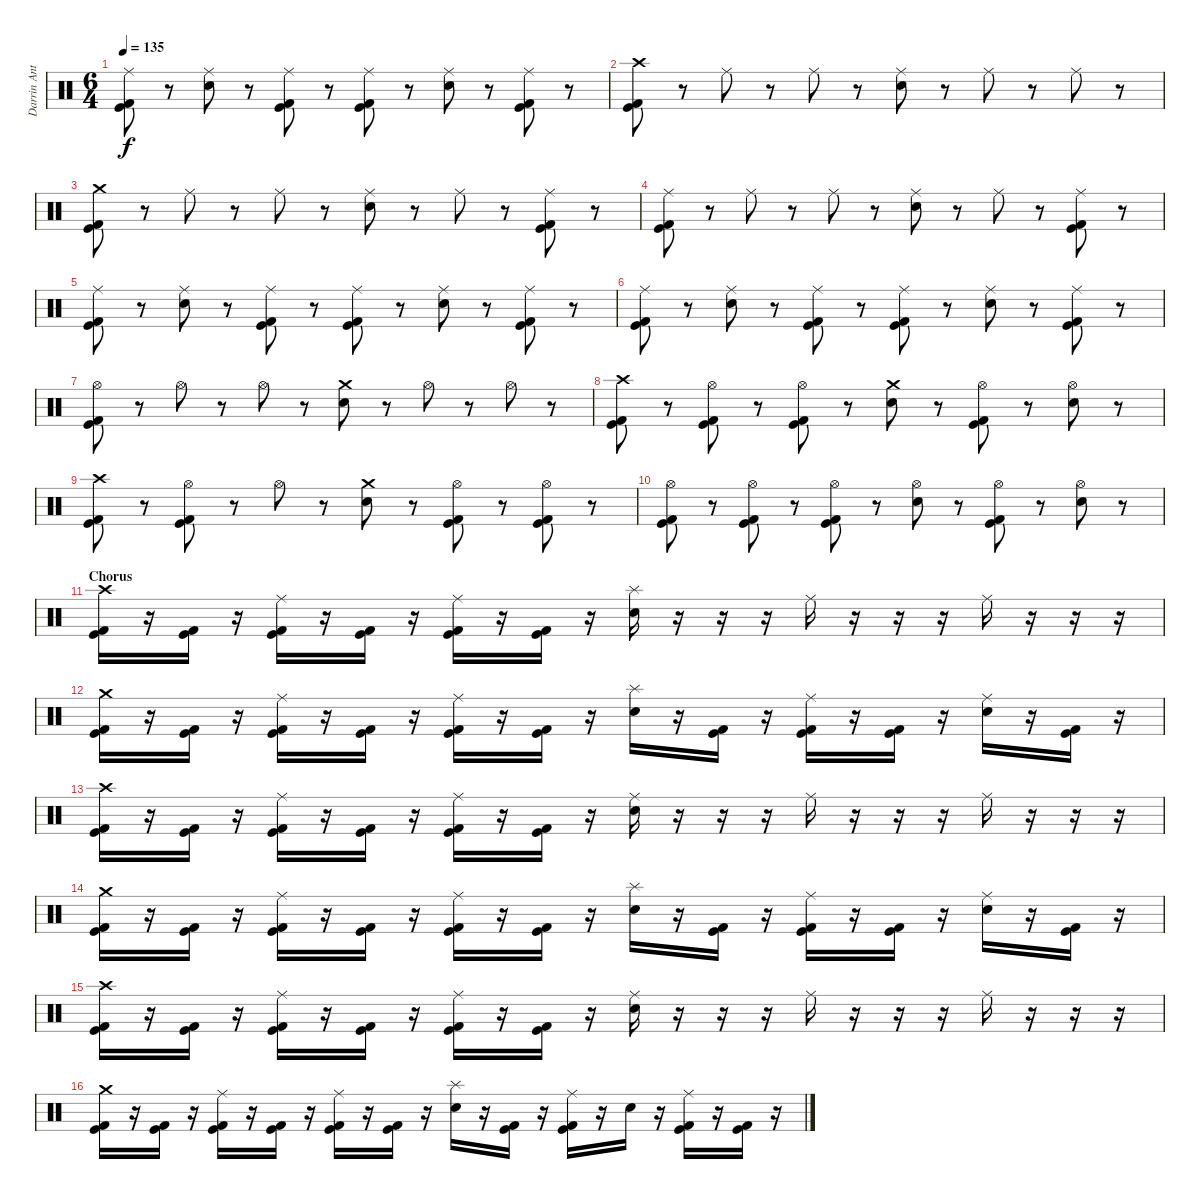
\track ("Darrin Anthony" "Darrin Ant") {instrument percussion}
\staff {score}
\articulation defaults
\ts (6 4)
\tempo 135
\clef neutral
\ks c
("Ride (middle)" "Kick (hit)" "Kick (hit) 2").8{dy f} r.8 ("Ride (middle)" "Electric Snare (hit)").8 r.8 ("Ride (middle)" "Kick (hit)" "Kick (hit) 2").8 r.8 ("Ride (middle)" "Kick (hit)" "Kick (hit) 2").8 r.8 ("Ride (middle)" "Electric Snare (hit)").8 r.8 ("Ride (middle)" "Kick (hit)" "Kick (hit) 2").8 r.8 |
("Crash high (hit)" "Kick (hit)" "Kick (hit) 2").8 r.8 "Ride (middle)".8 r.8 "Ride (middle)".8 r.8 ("Ride (middle)" "Electric Snare (hit)").8 r.8 "Ride (middle)".8 r.8 "Ride (middle)".8 r.8 |
("Crash medium (hit)" "Kick (hit)" "Kick (hit) 2").8 r.8 "Ride (middle)".8 r.8 "Ride (middle)".8 r.8 ("Ride (middle)" "Electric Snare (hit)").8 r.8 "Ride (middle)".8 r.8 ("Ride (middle)" "Kick (hit)" "Kick (hit) 2").8 r.8 |
("Ride (middle)" "Kick (hit)" "Kick (hit) 2").8 r.8 "Ride (middle)".8 r.8 "Ride (middle)".8 r.8 ("Ride (middle)" "Electric Snare (hit)").8 r.8 "Ride (middle)".8 r.8 ("Ride (middle)" "Kick (hit)" "Kick (hit) 2").8 r.8 |
("Ride (middle)" "Kick (hit)" "Kick (hit) 2").8 r.8 ("Ride (middle)" "Electric Snare (hit)").8 r.8 ("Ride (middle)" "Kick (hit)" "Kick (hit) 2").8 r.8 ("Ride (middle)" "Kick (hit)" "Kick (hit) 2").8 r.8 ("Ride (middle)" "Electric Snare (hit)").8 r.8 ("Ride (middle)" "Kick (hit)" "Kick (hit) 2").8 r.8 |
("Ride (middle)" "Kick (hit)" "Kick (hit) 2").8 r.8 ("Ride (middle)" "Electric Snare (hit)").8 r.8 ("Ride (middle)" "Kick (hit)" "Kick (hit) 2").8 r.8 ("Ride (middle)" "Kick (hit)" "Kick (hit) 2").8 r.8 ("Ride (middle)" "Electric Snare (hit)").8 r.8 ("Ride (middle)" "Kick (hit)" "Kick (hit) 2").8 r.8 |
("Hi-Hat (open)" "Kick (hit)" "Kick (hit) 2").8 r.8 "Hi-Hat (open)".8 r.8 "Hi-Hat (open)".8 r.8 ("Crash medium (hit)" "Electric Snare (hit)").8 r.8 "Hi-Hat (open)".8 r.8 "Hi-Hat (open)".8 r.8 |
("Crash high (hit)" "Kick (hit)" "Kick (hit) 2").8 r.8 ("Hi-Hat (open)" "Kick (hit)" "Kick (hit) 2").8 r.8 ("Hi-Hat (open)" "Kick (hit)" "Kick (hit) 2").8 r.8 ("Crash medium (hit)" "Electric Snare (hit)").8 r.8 ("Hi-Hat (open)" "Kick (hit)" "Kick (hit) 2").8 r.8 ("Hi-Hat (open)" "Electric Snare (hit)").8 r.8 |
("Crash high (hit)" "Kick (hit)" "Kick (hit) 2").8 r.8 ("Hi-Hat (open)" "Kick (hit)" "Kick (hit) 2").8 r.8 "Hi-Hat (open)".8 r.8 ("Crash medium (hit)" "Electric Snare (hit)").8 r.8 ("Hi-Hat (open)" "Kick (hit)" "Kick (hit) 2").8 r.8 ("Hi-Hat (open)" "Kick (hit)" "Kick (hit) 2").8 r.8 |
("Hi-Hat (open)" "Kick (hit)" "Kick (hit) 2").8 r.8 ("Hi-Hat (open)" "Kick (hit)" "Kick (hit) 2").8 r.8 ("Hi-Hat (open)" "Kick (hit)" "Kick (hit) 2").8 r.8 ("Hi-Hat (open)" "Electric Snare (hit)").8 r.8 ("Hi-Hat (open)" "Kick (hit)" "Kick (hit) 2").8 r.8 ("Hi-Hat (open)" "Electric Snare (hit)").8 r.8 |
\section ("" "Chorus")
("Crash high (hit)" "Kick (hit)" "Kick (hit) 2").16 r.16 ("Kick (hit)" "Kick (hit) 2").16 r.16 ("Ride (middle)" "Kick (hit)" "Kick (hit) 2").16 r.16 ("Kick (hit)" "Kick (hit) 2").16 r.16 ("Ride (middle)" "Kick (hit)" "Kick (hit) 2").16 r.16 ("Kick (hit)" "Kick (hit) 2").16 r.16 ("Splash (hit)" "Electric Snare (hit)").16 r.16 r.16 r.16 "Ride (middle)".16 r.16 r.16 r.16 "Ride (middle)".16 r.16 r.16 r.16 |
("Crash medium (hit)" "Kick (hit)" "Kick (hit) 2").16 r.16 ("Kick (hit)" "Kick (hit) 2").16 r.16 ("Ride (middle)" "Kick (hit)" "Kick (hit) 2").16 r.16 ("Kick (hit)" "Kick (hit) 2").16 r.16 ("Ride (middle)" "Kick (hit)" "Kick (hit) 2").16 r.16 ("Kick (hit)" "Kick (hit) 2").16 r.16 ("Splash (hit)" "Electric Snare (hit)").16 r.16 ("Kick (hit)" "Kick (hit) 2").16 r.16 ("Ride (middle)" "Kick (hit)" "Kick (hit) 2").16 r.16 ("Kick (hit)" "Kick (hit) 2").16 r.16 ("Ride (middle)" "Electric Snare (hit)").16 r.16 ("Kick (hit)" "Kick (hit) 2").16 r.16 |
("Crash high (hit)" "Kick (hit)" "Kick (hit) 2").16 r.16 ("Kick (hit)" "Kick (hit) 2").16 r.16 ("Ride (middle)" "Kick (hit)" "Kick (hit) 2").16 r.16 ("Kick (hit)" "Kick (hit) 2").16 r.16 ("Ride (middle)" "Kick (hit)" "Kick (hit) 2").16 r.16 ("Kick (hit)" "Kick (hit) 2").16 r.16 ("Ride (middle)" "Electric Snare (hit)").16 r.16 r.16 r.16 "Ride (middle)".16 r.16 r.16 r.16 "Ride (middle)".16 r.16 r.16 r.16 |
("Crash medium (hit)" "Kick (hit)" "Kick (hit) 2").16 r.16 ("Kick (hit)" "Kick (hit) 2").16 r.16 ("Ride (middle)" "Kick (hit)" "Kick (hit) 2").16 r.16 ("Kick (hit)" "Kick (hit) 2").16 r.16 ("Ride (middle)" "Kick (hit)" "Kick (hit) 2").16 r.16 ("Kick (hit)" "Kick (hit) 2").16 r.16 ("Splash (hit)" "Electric Snare (hit)").16 r.16 ("Kick (hit)" "Kick (hit) 2").16 r.16 ("Ride (middle)" "Kick (hit)" "Kick (hit) 2").16 r.16 ("Kick (hit)" "Kick (hit) 2").16 r.16 ("Ride (middle)" "Electric Snare (hit)").16 r.16 ("Kick (hit)" "Kick (hit) 2").16 r.16 |
("Crash high (hit)" "Kick (hit)" "Kick (hit) 2").16 r.16 ("Kick (hit)" "Kick (hit) 2").16 r.16 ("Ride (middle)" "Kick (hit)" "Kick (hit) 2").16 r.16 ("Kick (hit)" "Kick (hit) 2").16 r.16 ("Ride (middle)" "Kick (hit)" "Kick (hit) 2").16 r.16 ("Kick (hit)" "Kick (hit) 2").16 r.16 ("Ride (middle)" "Electric Snare (hit)").16 r.16 r.16 r.16 "Ride (middle)".16 r.16 r.16 r.16 "Ride (middle)".16 r.16 r.16 r.16 |
("Crash medium (hit)" "Kick (hit)" "Kick (hit) 2").16 r.16 ("Kick (hit)" "Kick (hit) 2").16 r.16 ("Ride (middle)" "Kick (hit)" "Kick (hit) 2").16 r.16 ("Kick (hit)" "Kick (hit) 2").16 r.16 ("Ride (middle)" "Kick (hit)" "Kick (hit) 2").16 r.16 ("Kick (hit)" "Kick (hit) 2").16 r.16 ("Splash (hit)" "Electric Snare (hit)").16 r.16 ("Kick (hit)" "Kick (hit) 2").16 r.16 ("Ride (middle)" "Kick (hit)" "Kick (hit) 2").16 r.16 "Electric Snare (hit)".16 r.16 ("Ride (middle)" "Kick (hit)" "Kick (hit) 2").16 r.16 ("Kick (hit)" "Kick (hit) 2").16 r.16
